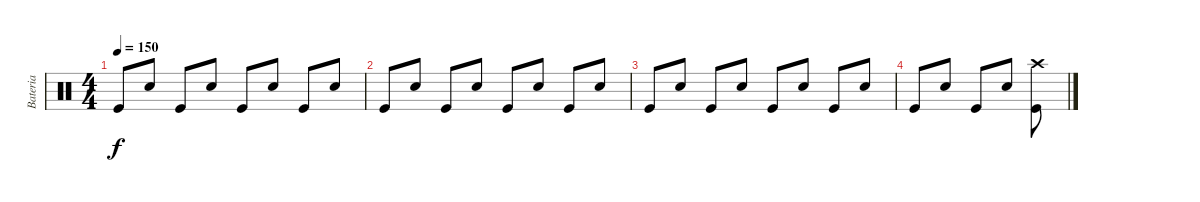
\track ("Bateria" "Bateria") {instrument percussion}
\staff {score}
\articulation defaults
\ts (4 4)
\tempo 150
\clef neutral
\ks c "Kick (hit)".8{dy f} "Electric Snare (hit)".8 "Kick (hit)".8 "Electric Snare (hit)".8 "Kick (hit)".8 "Electric Snare (hit)".8 "Kick (hit)".8 "Electric Snare (hit)".8
|
"Kick (hit)".8 "Electric Snare (hit)".8 "Kick (hit)".8 "Electric Snare (hit)".8 "Kick (hit)".8 "Electric Snare (hit)".8 "Kick (hit)".8 "Electric Snare (hit)".8 |
"Kick (hit)".8 "Electric Snare (hit)".8 "Kick (hit)".8 "Electric Snare (hit)".8 "Kick (hit)".8 "Electric Snare (hit)".8 "Kick (hit)".8 "Electric Snare (hit)".8 |
"Kick (hit)".8 "Electric Snare (hit)".8 "Kick (hit)".8 "Electric Snare (hit)".8 ("Kick (hit)" "Crash high (hit)").8
